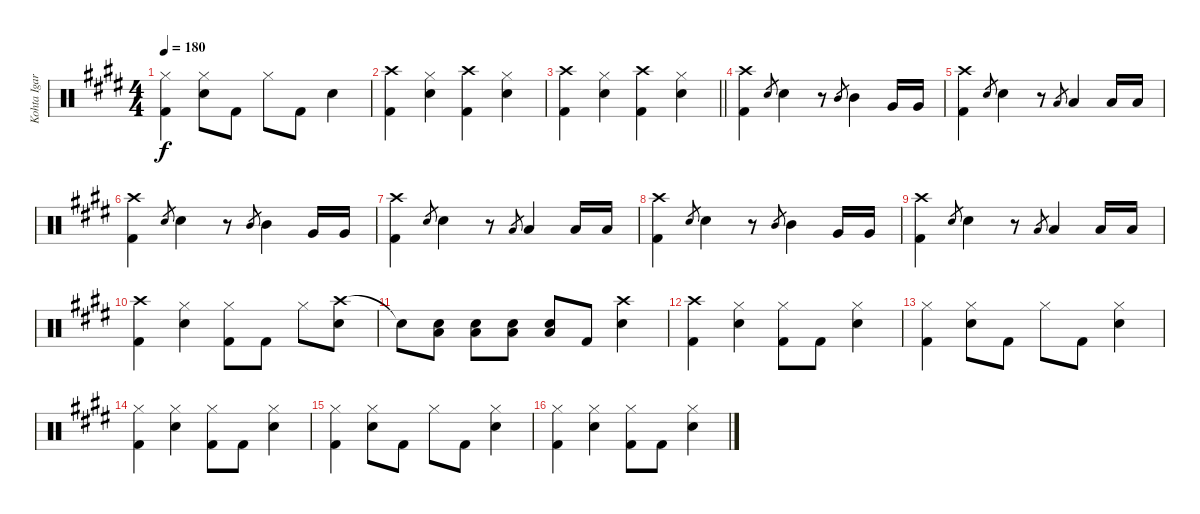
\track ("Kohta Igarashi" "Kohta Igar") {instrument percussion}
\staff {score}
\articulation defaults
\ts (4 4)
\tempo 180
\clef neutral
\ks e
("Hi-Hat (closed)" "Kick (hit) 2").4{dy f} ("Hi-Hat (closed)" "Electric Snare (hit)").8 "Kick (hit) 2".8 "Hi-Hat (closed)".8 "Kick (hit) 2".8 "Electric Snare (hit)".4 |
("Crash high (hit)" "Kick (hit) 2").4 ("Hi-Hat (closed)" "Electric Snare (hit)").4 ("Crash high (hit)" "Kick (hit) 2").4 ("Hi-Hat (closed)" "Electric Snare (hit)").4 |
\barLineRight lightlight
("Crash high (hit)" "Kick (hit) 2").4 ("Hi-Hat (closed)" "Electric Snare (hit)").4 ("Crash high (hit)" "Kick (hit) 2").4 ("Hi-Hat (closed)" "Electric Snare (hit)").4 |
("Crash high (hit)" "Kick (hit) 2").4 "Electric Snare (hit)".8{gr} "Electric Snare (hit)".4 r.8 "Mid Tom (hit)".8{gr} "Mid Tom (hit)".4 "Very Low Tom (hit)".16 "Very Low Tom (hit)".16 |
("Crash high (hit)" "Kick (hit) 2").4 "Electric Snare (hit)".8{gr} "Electric Snare (hit)".4 r.8 "Low Tom (hit)".8{gr} "Low Tom (hit)".4 "Low Floor Tom (hit)".16 "Low Floor Tom (hit)".16 |
("Crash high (hit)" "Kick (hit) 2").4 "Electric Snare (hit)".8{gr} "Electric Snare (hit)".4 r.8 "Mid Tom (hit)".8{gr} "Mid Tom (hit)".4 "Very Low Tom (hit)".16 "Very Low Tom (hit)".16 |
("Crash high (hit)" "Kick (hit) 2").4 "Electric Snare (hit)".8{gr} "Electric Snare (hit)".4 r.8 "Low Tom (hit)".8{gr} "Low Tom (hit)".4 "Low Floor Tom (hit)".16 "Low Floor Tom (hit)".16 |
("Crash high (hit)" "Kick (hit) 2").4 "Electric Snare (hit)".8{gr} "Electric Snare (hit)".4 r.8 "Mid Tom (hit)".8{gr} "Mid Tom (hit)".4 "Very Low Tom (hit)".16 "Very Low Tom (hit)".16 |
("Crash high (hit)" "Kick (hit) 2").4 "Electric Snare (hit)".8{gr} "Electric Snare (hit)".4 r.8 "Low Tom (hit)".8{gr} "Low Tom (hit)".4 "Low Floor Tom (hit)".16 "Low Floor Tom (hit)".16 |
("Crash high (hit)" "Kick (hit) 2").4 ("Hi-Hat (closed)" "Electric Snare (hit)").4 ("Hi-Hat (closed)" "Kick (hit) 2").8 "Kick (hit) 2".8 "Hi-Hat (closed)".8 ("Crash high (hit)" "Electric Snare (hit)").8 |
"Snare (hit)"{t}.8 ("Electric Snare (hit)" "Low Floor Tom (hit)").8 ("Electric Snare (hit)" "Low Floor Tom (hit)").8 ("Electric Snare (hit)" "Low Floor Tom (hit)").8 ("Electric Snare (hit)" "Low Floor Tom (hit)").8 "Kick (hit) 2".8 ("Crash high (hit)" "Electric Snare (hit)").4 |
("Crash high (hit)" "Kick (hit) 2").4 ("Hi-Hat (closed)" "Electric Snare (hit)").4 ("Hi-Hat (closed)" "Kick (hit) 2").8 "Kick (hit) 2".8 ("Hi-Hat (closed)" "Electric Snare (hit)").4 |
("Hi-Hat (closed)" "Kick (hit) 2").4 ("Hi-Hat (closed)" "Electric Snare (hit)").8 "Kick (hit) 2".8 "Hi-Hat (closed)".8 "Kick (hit) 2".8 ("Hi-Hat (closed)" "Electric Snare (hit)").4 |
("Hi-Hat (closed)" "Kick (hit) 2").4 ("Hi-Hat (closed)" "Electric Snare (hit)").4 ("Hi-Hat (closed)" "Kick (hit) 2").8 "Kick (hit) 2".8 ("Hi-Hat (closed)" "Electric Snare (hit)").4 |
("Hi-Hat (closed)" "Kick (hit) 2").4 ("Hi-Hat (closed)" "Electric Snare (hit)").8 "Kick (hit) 2".8 "Hi-Hat (closed)".8 "Kick (hit) 2".8 ("Hi-Hat (closed)" "Electric Snare (hit)").4 |
("Hi-Hat (closed)" "Kick (hit) 2").4 ("Hi-Hat (closed)" "Electric Snare (hit)").4 ("Hi-Hat (closed)" "Kick (hit) 2").8 "Kick (hit) 2".8 ("Hi-Hat (closed)" "Electric Snare (hit)").4
